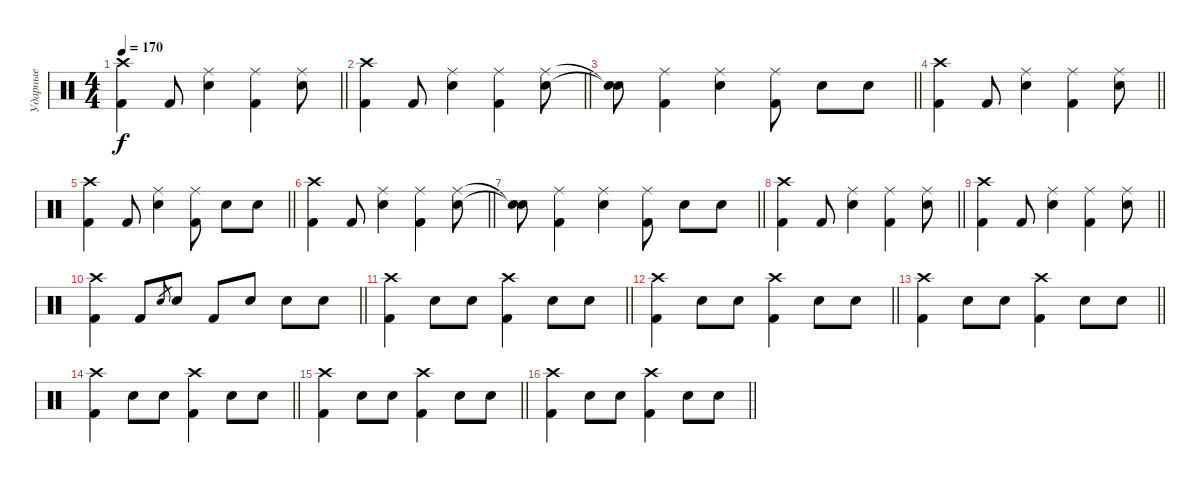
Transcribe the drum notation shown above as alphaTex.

\track ("Ударные" "Ударные") {instrument percussion}
\staff {score}
\articulation defaults
\ts (4 4)
\tempo 170
\clef neutral
\barLineRight lightlight
\ks c
("Crash high (hit)" "Kick (hit) 2").4{dy f} "Kick (hit) 2".8 ("Ride (middle)" "Snare (hit) 2").4 ("Ride (middle)" "Kick (hit) 2").4 ("Ride (middle)" "Snare (hit) 2").8 |
\barLineRight lightlight
("Crash high (hit)" "Kick (hit) 2").4 "Kick (hit) 2".8 ("Ride (middle)" "Snare (hit) 2").4 ("Ride (middle)" "Kick (hit) 2").4 ("Ride (middle)" "Snare (hit) 2").8 |
\barLineRight lightlight
("Snare (hit)"{t} "Snare (hit)"{t}).8 ("Ride (middle)" "Kick (hit) 2").4 ("Ride (middle)" "Snare (hit) 2").4 ("Kick (hit) 2" "Ride (middle)").8 "Snare (hit) 2".8 "Snare (hit) 2".8 |
\barLineRight lightlight
("Crash high (hit)" "Kick (hit) 2").4 "Kick (hit) 2".8 ("Ride (middle)" "Snare (hit) 2").4 ("Ride (middle)" "Kick (hit) 2").4 ("Ride (middle)" "Snare (hit) 2").8 |
\barLineRight lightlight
("Crash high (hit)" "Kick (hit) 2").4 "Kick (hit) 2".8 ("Ride (middle)" "Snare (hit) 2").4 ("Ride (middle)" "Kick (hit) 2").8 "Snare (hit) 2".8 "Snare (hit) 2".8 |
\barLineRight lightlight
("Crash high (hit)" "Kick (hit) 2").4 "Kick (hit) 2".8 ("Ride (middle)" "Snare (hit) 2").4 ("Ride (middle)" "Kick (hit) 2").4 ("Ride (middle)" "Snare (hit) 2").8 |
\barLineRight lightlight
("Snare (hit)"{t} "Snare (hit)"{t}).8 ("Ride (middle)" "Kick (hit) 2").4 ("Ride (middle)" "Snare (hit) 2").4 ("Ride (middle)" "Kick (hit) 2").8 "Snare (hit) 2".8 "Snare (hit) 2".8 |
\barLineRight lightlight
("Crash high (hit)" "Kick (hit) 2").4 "Kick (hit) 2".8 ("Ride (middle)" "Snare (hit) 2").4 ("Ride (middle)" "Kick (hit) 2").4 ("Ride (middle)" "Snare (hit) 2").8 |
\barLineRight lightlight
("Crash high (hit)" "Kick (hit) 2").4 "Kick (hit) 2".8 ("Ride (middle)" "Snare (hit) 2").4 ("Ride (middle)" "Kick (hit) 2").4 ("Ride (middle)" "Snare (hit) 2").8 |
\barLineRight lightlight
("Crash high (hit)" "Kick (hit) 2").4 "Kick (hit) 2".8 "Snare (hit) 2".8{gr} "Snare (hit) 2".8 "Kick (hit) 2".8 "Snare (hit) 2".8 "Snare (hit) 2".8 "Snare (hit) 2".8 |
\barLineRight lightlight
("Crash high (hit)" "Kick (hit) 2").4 "Snare (hit) 2".8 "Snare (hit) 2".8 ("Crash high (hit)" "Kick (hit) 2").4 "Snare (hit) 2".8 "Snare (hit) 2".8 |
\barLineRight lightlight
("Crash high (hit)" "Kick (hit) 2").4 "Snare (hit) 2".8 "Snare (hit) 2".8 ("Crash high (hit)" "Kick (hit) 2").4 "Snare (hit) 2".8 "Snare (hit) 2".8 |
\barLineRight lightlight
("Crash high (hit)" "Kick (hit) 2").4 "Snare (hit) 2".8 "Snare (hit) 2".8 ("Crash high (hit)" "Kick (hit) 2").4 "Snare (hit) 2".8 "Snare (hit) 2".8 |
\barLineRight lightlight
("Crash high (hit)" "Kick (hit) 2").4 "Snare (hit) 2".8 "Snare (hit) 2".8 ("Crash high (hit)" "Kick (hit) 2").4 "Snare (hit) 2".8 "Snare (hit) 2".8 |
\barLineRight lightlight
("Crash high (hit)" "Kick (hit) 2").4 "Snare (hit) 2".8 "Snare (hit) 2".8 ("Crash high (hit)" "Kick (hit) 2").4 "Snare (hit) 2".8 "Snare (hit) 2".8 |
\barLineRight lightlight
("Crash high (hit)" "Kick (hit) 2").4 "Snare (hit) 2".8 "Snare (hit) 2".8 ("Crash high (hit)" "Kick (hit) 2").4 "Snare (hit) 2".8 "Snare (hit) 2".8
